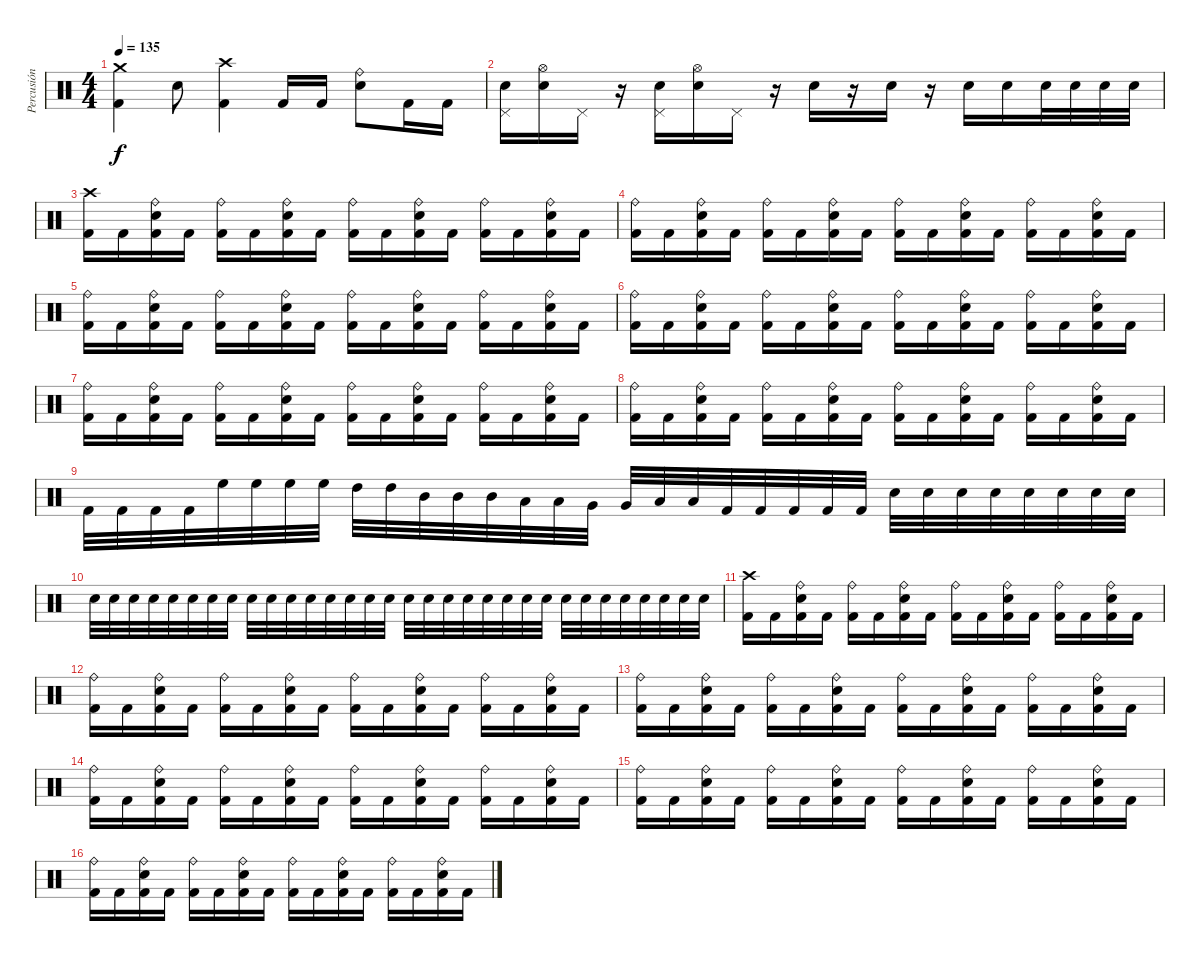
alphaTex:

\track ("Percusión" "Percusión") {instrument percussion}
\staff {score}
\articulation defaults
\ts (4 4)
\tempo 135
\clef neutral
\ks c
("Crash medium (hit)" "Kick (hit) 2").4{dy f} "Electric Snare (hit)".8 ("Crash high (hit)" "Kick (hit) 2").4 "Kick (hit) 2".16 "Kick (hit) 2".16 ("Ride (bell)" "Electric Snare (hit)").8 "Kick (hit) 2".16 "Kick (hit) 2".16 |
("Pedal Hi-Hat (hit)" "Electric Snare (hit)").16 ("Hi-Hat (open)" "Electric Snare (hit)").16 "Pedal Hi-Hat (hit)".16 r.16 ("Pedal Hi-Hat (hit)" "Electric Snare (hit)").16 ("Hi-Hat (open)" "Electric Snare (hit)").16 "Pedal Hi-Hat (hit)".16 r.16 "Electric Snare (hit)".16 r.16 "Electric Snare (hit)".16 r.16 "Electric Snare (hit)".16 "Electric Snare (hit)".16 "Electric Snare (hit)".32 "Electric Snare (hit)".32 "Electric Snare (hit)".32 "Electric Snare (hit)".32 |
("Crash high (hit)" "Kick (hit) 2").16 "Kick (hit) 2".16 ("Ride (bell)" "Electric Snare (hit)" "Kick (hit) 2").16 "Kick (hit) 2".16 ("Ride (bell)" "Kick (hit) 2").16 "Kick (hit) 2".16 ("Ride (bell)" "Electric Snare (hit)" "Kick (hit) 2").16 "Kick (hit) 2".16 ("Ride (bell)" "Kick (hit) 2").16 "Kick (hit) 2".16 ("Ride (bell)" "Electric Snare (hit)" "Kick (hit) 2").16 "Kick (hit) 2".16 ("Ride (bell)" "Kick (hit) 2").16 "Kick (hit) 2".16 ("Ride (bell)" "Electric Snare (hit)" "Kick (hit) 2").16 "Kick (hit) 2".16 |
("Ride (bell)" "Kick (hit) 2").16 "Kick (hit) 2".16 ("Ride (bell)" "Electric Snare (hit)" "Kick (hit) 2").16 "Kick (hit) 2".16 ("Ride (bell)" "Kick (hit) 2").16 "Kick (hit) 2".16 ("Ride (bell)" "Electric Snare (hit)" "Kick (hit) 2").16 "Kick (hit) 2".16 ("Ride (bell)" "Kick (hit) 2").16 "Kick (hit) 2".16 ("Ride (bell)" "Electric Snare (hit)" "Kick (hit) 2").16 "Kick (hit) 2".16 ("Ride (bell)" "Kick (hit) 2").16 "Kick (hit) 2".16 ("Ride (bell)" "Electric Snare (hit)" "Kick (hit) 2").16 "Kick (hit) 2".16 |
("Ride (bell)" "Kick (hit) 2").16 "Kick (hit) 2".16 ("Ride (bell)" "Electric Snare (hit)" "Kick (hit) 2").16 "Kick (hit) 2".16 ("Ride (bell)" "Kick (hit) 2").16 "Kick (hit) 2".16 ("Ride (bell)" "Electric Snare (hit)" "Kick (hit) 2").16 "Kick (hit) 2".16 ("Ride (bell)" "Kick (hit) 2").16 "Kick (hit) 2".16 ("Ride (bell)" "Electric Snare (hit)" "Kick (hit) 2").16 "Kick (hit) 2".16 ("Ride (bell)" "Kick (hit) 2").16 "Kick (hit) 2".16 ("Ride (bell)" "Electric Snare (hit)" "Kick (hit) 2").16 "Kick (hit) 2".16 |
("Ride (bell)" "Kick (hit) 2").16 "Kick (hit) 2".16 ("Ride (bell)" "Electric Snare (hit)" "Kick (hit) 2").16 "Kick (hit) 2".16 ("Ride (bell)" "Kick (hit) 2").16 "Kick (hit) 2".16 ("Ride (bell)" "Electric Snare (hit)" "Kick (hit) 2").16 "Kick (hit) 2".16 ("Ride (bell)" "Kick (hit) 2").16 "Kick (hit) 2".16 ("Ride (bell)" "Electric Snare (hit)" "Kick (hit) 2").16 "Kick (hit) 2".16 ("Ride (bell)" "Kick (hit) 2").16 "Kick (hit) 2".16 ("Ride (bell)" "Electric Snare (hit)" "Kick (hit) 2").16 "Kick (hit) 2".16 |
("Ride (bell)" "Kick (hit) 2").16 "Kick (hit) 2".16 ("Ride (bell)" "Electric Snare (hit)" "Kick (hit) 2").16 "Kick (hit) 2".16 ("Ride (bell)" "Kick (hit) 2").16 "Kick (hit) 2".16 ("Ride (bell)" "Electric Snare (hit)" "Kick (hit) 2").16 "Kick (hit) 2".16 ("Ride (bell)" "Kick (hit) 2").16 "Kick (hit) 2".16 ("Ride (bell)" "Electric Snare (hit)" "Kick (hit) 2").16 "Kick (hit) 2".16 ("Ride (bell)" "Kick (hit) 2").16 "Kick (hit) 2".16 ("Ride (bell)" "Electric Snare (hit)" "Kick (hit) 2").16 "Kick (hit) 2".16 |
("Ride (bell)" "Kick (hit) 2").16 "Kick (hit) 2".16 ("Ride (bell)" "Electric Snare (hit)" "Kick (hit) 2").16 "Kick (hit) 2".16 ("Ride (bell)" "Kick (hit) 2").16 "Kick (hit) 2".16 ("Ride (bell)" "Electric Snare (hit)" "Kick (hit) 2").16 "Kick (hit) 2".16 ("Ride (bell)" "Kick (hit) 2").16 "Kick (hit) 2".16 ("Ride (bell)" "Electric Snare (hit)" "Kick (hit) 2").16 "Kick (hit) 2".16 ("Ride (bell)" "Kick (hit) 2").16 "Kick (hit) 2".16 ("Ride (bell)" "Electric Snare (hit)" "Kick (hit) 2").16 "Kick (hit) 2".16 |
"Kick (hit) 2".32 "Kick (hit) 2".32 "Kick (hit) 2".32 "Kick (hit) 2".32 "High Floor Tom (hit)".32 "High Floor Tom (hit)".32 "High Floor Tom (hit)".32 "High Floor Tom (hit)".32 "High Tom (hit)".32 "High Tom (hit)".32 "Mid Tom (hit)".32 "Mid Tom (hit)".32 "Mid Tom (hit)".32 "Low Tom (hit)".32 "Low Tom (hit)".32 "Very Low Tom (hit)".32 "Very Low Tom (hit)".32 "Low Floor Tom (hit)".32 "Low Floor Tom (hit)".32 "Kick (hit) 2".32 "Kick (hit) 2".32 "Kick (hit) 2".32 "Kick (hit) 2".32 "Kick (hit) 2".32 "Electric Snare (hit)".32 "Electric Snare (hit)".32 "Electric Snare (hit)".32 "Electric Snare (hit)".32 "Electric Snare (hit)".32 "Electric Snare (hit)".32 "Electric Snare (hit)".32 "Electric Snare (hit)".32 |
"Electric Snare (hit)".32 "Electric Snare (hit)".32 "Electric Snare (hit)".32 "Electric Snare (hit)".32 "Electric Snare (hit)".32 "Electric Snare (hit)".32 "Electric Snare (hit)".32 "Electric Snare (hit)".32 "Electric Snare (hit)".32 "Electric Snare (hit)".32 "Electric Snare (hit)".32 "Electric Snare (hit)".32 "Electric Snare (hit)".32 "Electric Snare (hit)".32 "Electric Snare (hit)".32 "Electric Snare (hit)".32 "Electric Snare (hit)".32 "Electric Snare (hit)".32 "Electric Snare (hit)".32 "Electric Snare (hit)".32 "Electric Snare (hit)".32 "Electric Snare (hit)".32 "Electric Snare (hit)".32 "Electric Snare (hit)".32 "Electric Snare (hit)".32 "Electric Snare (hit)".32 "Electric Snare (hit)".32 "Electric Snare (hit)".32 "Electric Snare (hit)".32 "Electric Snare (hit)".32 "Electric Snare (hit)".32 "Electric Snare (hit)".32 |
("Crash high (hit)" "Kick (hit) 2").16 "Kick (hit) 2".16 ("Ride (bell)" "Electric Snare (hit)" "Kick (hit) 2").16 "Kick (hit) 2".16 ("Ride (bell)" "Kick (hit) 2").16 "Kick (hit) 2".16 ("Ride (bell)" "Electric Snare (hit)" "Kick (hit) 2").16 "Kick (hit) 2".16 ("Ride (bell)" "Kick (hit) 2").16 "Kick (hit) 2".16 ("Ride (bell)" "Electric Snare (hit)" "Kick (hit) 2").16 "Kick (hit) 2".16 ("Ride (bell)" "Kick (hit) 2").16 "Kick (hit) 2".16 ("Ride (bell)" "Electric Snare (hit)" "Kick (hit) 2").16 "Kick (hit) 2".16 |
("Ride (bell)" "Kick (hit) 2").16 "Kick (hit) 2".16 ("Ride (bell)" "Electric Snare (hit)" "Kick (hit) 2").16 "Kick (hit) 2".16 ("Ride (bell)" "Kick (hit) 2").16 "Kick (hit) 2".16 ("Ride (bell)" "Electric Snare (hit)" "Kick (hit) 2").16 "Kick (hit) 2".16 ("Ride (bell)" "Kick (hit) 2").16 "Kick (hit) 2".16 ("Ride (bell)" "Electric Snare (hit)" "Kick (hit) 2").16 "Kick (hit) 2".16 ("Ride (bell)" "Kick (hit) 2").16 "Kick (hit) 2".16 ("Ride (bell)" "Electric Snare (hit)" "Kick (hit) 2").16 "Kick (hit) 2".16 |
("Ride (bell)" "Kick (hit) 2").16 "Kick (hit) 2".16 ("Ride (bell)" "Electric Snare (hit)" "Kick (hit) 2").16 "Kick (hit) 2".16 ("Ride (bell)" "Kick (hit) 2").16 "Kick (hit) 2".16 ("Ride (bell)" "Electric Snare (hit)" "Kick (hit) 2").16 "Kick (hit) 2".16 ("Ride (bell)" "Kick (hit) 2").16 "Kick (hit) 2".16 ("Ride (bell)" "Electric Snare (hit)" "Kick (hit) 2").16 "Kick (hit) 2".16 ("Ride (bell)" "Kick (hit) 2").16 "Kick (hit) 2".16 ("Ride (bell)" "Electric Snare (hit)" "Kick (hit) 2").16 "Kick (hit) 2".16 |
("Ride (bell)" "Kick (hit) 2").16 "Kick (hit) 2".16 ("Ride (bell)" "Electric Snare (hit)" "Kick (hit) 2").16 "Kick (hit) 2".16 ("Ride (bell)" "Kick (hit) 2").16 "Kick (hit) 2".16 ("Ride (bell)" "Electric Snare (hit)" "Kick (hit) 2").16 "Kick (hit) 2".16 ("Ride (bell)" "Kick (hit) 2").16 "Kick (hit) 2".16 ("Ride (bell)" "Electric Snare (hit)" "Kick (hit) 2").16 "Kick (hit) 2".16 ("Ride (bell)" "Kick (hit) 2").16 "Kick (hit) 2".16 ("Ride (bell)" "Electric Snare (hit)" "Kick (hit) 2").16 "Kick (hit) 2".16 |
("Ride (bell)" "Kick (hit) 2").16 "Kick (hit) 2".16 ("Ride (bell)" "Electric Snare (hit)" "Kick (hit) 2").16 "Kick (hit) 2".16 ("Ride (bell)" "Kick (hit) 2").16 "Kick (hit) 2".16 ("Ride (bell)" "Electric Snare (hit)" "Kick (hit) 2").16 "Kick (hit) 2".16 ("Ride (bell)" "Kick (hit) 2").16 "Kick (hit) 2".16 ("Ride (bell)" "Electric Snare (hit)" "Kick (hit) 2").16 "Kick (hit) 2".16 ("Ride (bell)" "Kick (hit) 2").16 "Kick (hit) 2".16 ("Ride (bell)" "Electric Snare (hit)" "Kick (hit) 2").16 "Kick (hit) 2".16 |
("Ride (bell)" "Kick (hit) 2").16 "Kick (hit) 2".16 ("Ride (bell)" "Electric Snare (hit)" "Kick (hit) 2").16 "Kick (hit) 2".16 ("Ride (bell)" "Kick (hit) 2").16 "Kick (hit) 2".16 ("Ride (bell)" "Electric Snare (hit)" "Kick (hit) 2").16 "Kick (hit) 2".16 ("Ride (bell)" "Kick (hit) 2").16 "Kick (hit) 2".16 ("Ride (bell)" "Electric Snare (hit)" "Kick (hit) 2").16 "Kick (hit) 2".16 ("Ride (bell)" "Kick (hit) 2").16 "Kick (hit) 2".16 ("Ride (bell)" "Electric Snare (hit)" "Kick (hit) 2").16 "Kick (hit) 2".16
